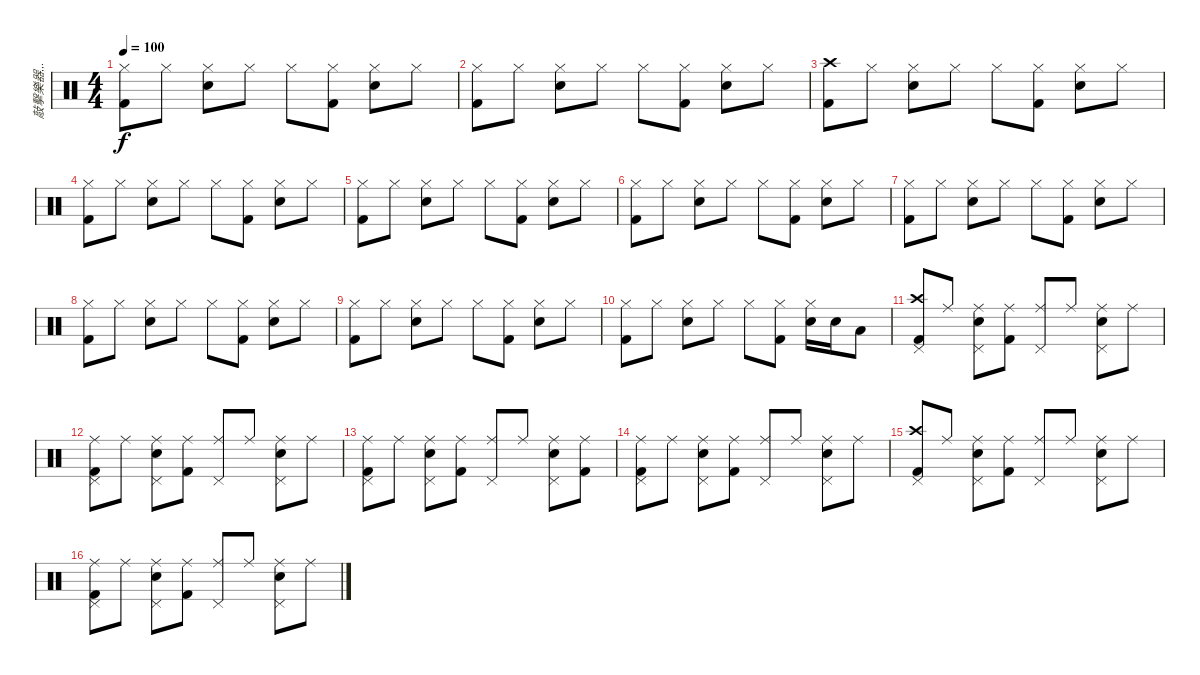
\track ("敲擊樂器,,." "敲擊樂器,,.") {instrument percussion}
\staff {score}
\articulation defaults
\ts (4 4)
\tempo 100
\clef neutral
\ks c
("Hi-Hat (closed)" "Kick (hit) 2").8{dy f} "Hi-Hat (closed)".8 ("Hi-Hat (closed)" "Snare (hit) 2").8 "Hi-Hat (closed)".8 "Hi-Hat (closed)".8 ("Hi-Hat (closed)" "Kick (hit) 2").8 ("Hi-Hat (closed)" "Snare (hit) 2").8 "Hi-Hat (closed)".8 |
("Hi-Hat (closed)" "Kick (hit) 2").8 "Hi-Hat (closed)".8 ("Hi-Hat (closed)" "Snare (hit) 2").8 "Hi-Hat (closed)".8 "Hi-Hat (closed)".8 ("Hi-Hat (closed)" "Kick (hit) 2").8 ("Hi-Hat (closed)" "Snare (hit) 2").8 "Hi-Hat (closed)".8 |
("Crash high (hit)" "Kick (hit) 2").8 "Hi-Hat (closed)".8 ("Hi-Hat (closed)" "Snare (hit) 2").8 "Hi-Hat (closed)".8 "Hi-Hat (closed)".8 ("Hi-Hat (closed)" "Kick (hit) 2").8 ("Hi-Hat (closed)" "Snare (hit) 2").8 "Hi-Hat (closed)".8 |
("Hi-Hat (closed)" "Kick (hit) 2").8 "Hi-Hat (closed)".8 ("Hi-Hat (closed)" "Snare (hit) 2").8 "Hi-Hat (closed)".8 "Hi-Hat (closed)".8 ("Hi-Hat (closed)" "Kick (hit) 2").8 ("Hi-Hat (closed)" "Snare (hit) 2").8 "Hi-Hat (closed)".8 |
("Hi-Hat (closed)" "Kick (hit) 2").8 "Hi-Hat (closed)".8 ("Hi-Hat (closed)" "Snare (hit) 2").8 "Hi-Hat (closed)".8 "Hi-Hat (closed)".8 ("Hi-Hat (closed)" "Kick (hit) 2").8 ("Hi-Hat (closed)" "Snare (hit) 2").8 "Hi-Hat (closed)".8 |
("Hi-Hat (closed)" "Kick (hit) 2").8 "Hi-Hat (closed)".8 ("Hi-Hat (closed)" "Snare (hit) 2").8 "Hi-Hat (closed)".8 "Hi-Hat (closed)".8 ("Hi-Hat (closed)" "Kick (hit) 2").8 ("Hi-Hat (closed)" "Snare (hit) 2").8 "Hi-Hat (closed)".8 |
("Hi-Hat (closed)" "Kick (hit) 2").8 "Hi-Hat (closed)".8 ("Hi-Hat (closed)" "Snare (hit) 2").8 "Hi-Hat (closed)".8 "Hi-Hat (closed)".8 ("Hi-Hat (closed)" "Kick (hit) 2").8 ("Hi-Hat (closed)" "Snare (hit) 2").8 "Hi-Hat (closed)".8 |
("Hi-Hat (closed)" "Kick (hit) 2").8 "Hi-Hat (closed)".8 ("Hi-Hat (closed)" "Snare (hit) 2").8 "Hi-Hat (closed)".8 "Hi-Hat (closed)".8 ("Hi-Hat (closed)" "Kick (hit) 2").8 ("Hi-Hat (closed)" "Snare (hit) 2").8 "Hi-Hat (closed)".8 |
("Hi-Hat (closed)" "Kick (hit) 2").8 "Hi-Hat (closed)".8 ("Hi-Hat (closed)" "Snare (hit) 2").8 "Hi-Hat (closed)".8 "Hi-Hat (closed)".8 ("Hi-Hat (closed)" "Kick (hit) 2").8 ("Hi-Hat (closed)" "Snare (hit) 2").8 "Hi-Hat (closed)".8 |
("Hi-Hat (closed)" "Kick (hit) 2").8 "Hi-Hat (closed)".8 ("Hi-Hat (closed)" "Snare (hit) 2").8 "Hi-Hat (closed)".8 "Hi-Hat (closed)".8 ("Hi-Hat (closed)" "Kick (hit) 2").8 ("Hi-Hat (closed)" "Snare (hit) 2").16 "Snare (hit) 2".16 "Low Tom (hit)".8 |
("Crash high (hit)" "Pedal Hi-Hat (hit)" "Kick (hit) 2").8 "Ride (middle)".8 ("Ride (middle)" "Pedal Hi-Hat (hit)" "Snare (hit) 2").8 ("Ride (middle)" "Kick (hit) 2").8 ("Ride (middle)" "Pedal Hi-Hat (hit)").8 "Ride (middle)".8 ("Ride (middle)" "Pedal Hi-Hat (hit)" "Snare (hit) 2").8 "Ride (middle)".8 |
("Ride (middle)" "Pedal Hi-Hat (hit)" "Kick (hit) 2").8 "Ride (middle)".8 ("Ride (middle)" "Pedal Hi-Hat (hit)" "Snare (hit) 2").8 ("Ride (middle)" "Kick (hit) 2").8 ("Ride (middle)" "Pedal Hi-Hat (hit)").8 "Ride (middle)".8 ("Ride (middle)" "Pedal Hi-Hat (hit)" "Snare (hit) 2").8 "Ride (middle)".8 |
("Ride (middle)" "Pedal Hi-Hat (hit)" "Kick (hit) 2").8 "Ride (middle)".8 ("Ride (middle)" "Pedal Hi-Hat (hit)" "Snare (hit) 2").8 ("Ride (middle)" "Kick (hit) 2").8 ("Ride (middle)" "Pedal Hi-Hat (hit)").8 "Ride (middle)".8 ("Ride (middle)" "Pedal Hi-Hat (hit)" "Snare (hit) 2").8 ("Ride (middle)" "Kick (hit) 2").8 |
("Ride (middle)" "Pedal Hi-Hat (hit)" "Kick (hit) 2").8 "Ride (middle)".8 ("Ride (middle)" "Pedal Hi-Hat (hit)" "Snare (hit) 2").8 ("Ride (middle)" "Kick (hit) 2").8 ("Ride (middle)" "Pedal Hi-Hat (hit)").8 "Ride (middle)".8 ("Ride (middle)" "Pedal Hi-Hat (hit)" "Snare (hit) 2").8 "Ride (middle)".8 |
("Crash high (hit)" "Pedal Hi-Hat (hit)" "Kick (hit) 2").8 "Ride (middle)".8 ("Ride (middle)" "Pedal Hi-Hat (hit)" "Snare (hit) 2").8 ("Ride (middle)" "Kick (hit) 2").8 ("Ride (middle)" "Pedal Hi-Hat (hit)").8 "Ride (middle)".8 ("Ride (middle)" "Pedal Hi-Hat (hit)" "Snare (hit) 2").8 "Ride (middle)".8 |
("Ride (middle)" "Pedal Hi-Hat (hit)" "Kick (hit) 2").8 "Ride (middle)".8 ("Ride (middle)" "Pedal Hi-Hat (hit)" "Snare (hit) 2").8 ("Ride (middle)" "Kick (hit) 2").8 ("Ride (middle)" "Pedal Hi-Hat (hit)").8 "Ride (middle)".8 ("Ride (middle)" "Pedal Hi-Hat (hit)" "Snare (hit) 2").8 "Ride (middle)".8
